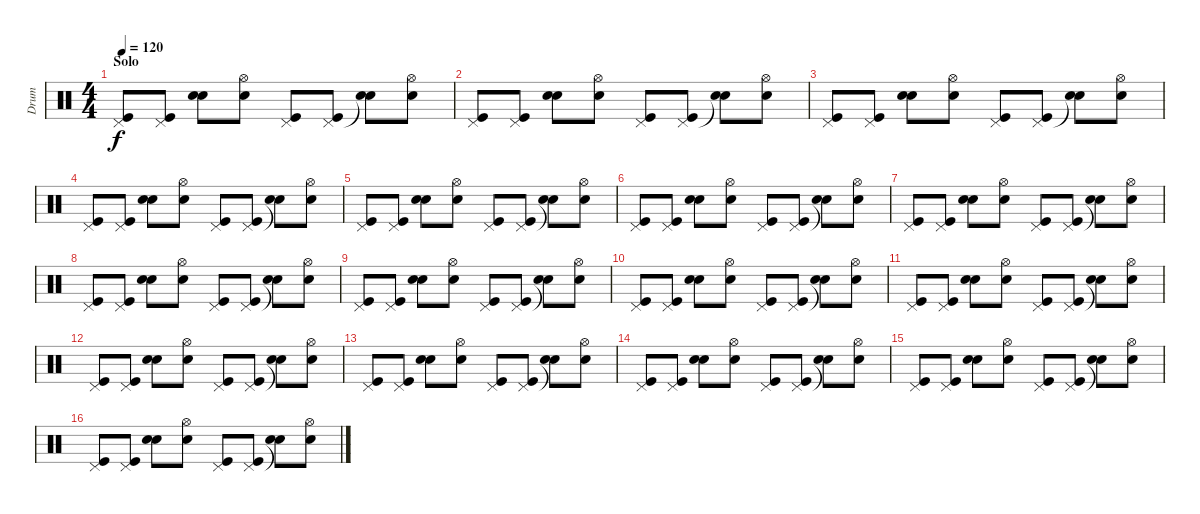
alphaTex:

\track ("Drum" "Drum") {instrument percussion}
\staff {score}
\articulation defaults
\ts (4 4)
\section ("" "Solo")
\tempo 120
\clef neutral
\ks c
("Pedal Hi-Hat (hit)" "Kick (hit)").8{dy f} ("Pedal Hi-Hat (hit)" "Kick (hit)").8 ("Snare (hit) 2" "Snare (hit) 2").8 ("Hi-Hat (open)" "Snare (hit) 2").8 ("Pedal Hi-Hat (hit)" "Kick (hit)").8 ("Pedal Hi-Hat (hit)" "Kick (hit)").8 ("Snare (hit) 2"{t} "Snare (hit) 2").8 ("Hi-Hat (open)" "Snare (hit) 2").8 |
("Pedal Hi-Hat (hit)" "Kick (hit)").8 ("Pedal Hi-Hat (hit)" "Kick (hit)").8 ("Snare (hit) 2" "Snare (hit) 2").8 ("Hi-Hat (open)" "Snare (hit) 2").8 ("Pedal Hi-Hat (hit)" "Kick (hit)").8 ("Pedal Hi-Hat (hit)" "Kick (hit)").8 ("Snare (hit) 2"{t} "Snare (hit) 2").8 ("Hi-Hat (open)" "Snare (hit) 2").8 |
("Pedal Hi-Hat (hit)" "Kick (hit)").8 ("Pedal Hi-Hat (hit)" "Kick (hit)").8 ("Snare (hit) 2" "Snare (hit) 2").8 ("Hi-Hat (open)" "Snare (hit) 2").8 ("Pedal Hi-Hat (hit)" "Kick (hit)").8 ("Pedal Hi-Hat (hit)" "Kick (hit)").8 ("Snare (hit) 2"{t} "Snare (hit) 2").8 ("Hi-Hat (open)" "Snare (hit) 2").8 |
("Pedal Hi-Hat (hit)" "Kick (hit)").8 ("Pedal Hi-Hat (hit)" "Kick (hit)").8 ("Snare (hit) 2" "Snare (hit) 2").8 ("Hi-Hat (open)" "Snare (hit) 2").8 ("Pedal Hi-Hat (hit)" "Kick (hit)").8 ("Pedal Hi-Hat (hit)" "Kick (hit)").8 ("Snare (hit) 2"{t} "Snare (hit) 2").8 ("Hi-Hat (open)" "Snare (hit) 2").8 |
("Pedal Hi-Hat (hit)" "Kick (hit)").8 ("Pedal Hi-Hat (hit)" "Kick (hit)").8 ("Snare (hit) 2" "Snare (hit) 2").8 ("Hi-Hat (open)" "Snare (hit) 2").8 ("Pedal Hi-Hat (hit)" "Kick (hit)").8 ("Pedal Hi-Hat (hit)" "Kick (hit)").8 ("Snare (hit) 2"{t} "Snare (hit) 2").8 ("Hi-Hat (open)" "Snare (hit) 2").8 |
("Pedal Hi-Hat (hit)" "Kick (hit)").8 ("Pedal Hi-Hat (hit)" "Kick (hit)").8 ("Snare (hit) 2" "Snare (hit) 2").8 ("Hi-Hat (open)" "Snare (hit) 2").8 ("Pedal Hi-Hat (hit)" "Kick (hit)").8 ("Pedal Hi-Hat (hit)" "Kick (hit)").8 ("Snare (hit) 2"{t} "Snare (hit) 2").8 ("Hi-Hat (open)" "Snare (hit) 2").8 |
("Pedal Hi-Hat (hit)" "Kick (hit)").8 ("Pedal Hi-Hat (hit)" "Kick (hit)").8 ("Snare (hit) 2" "Snare (hit) 2").8 ("Hi-Hat (open)" "Snare (hit) 2").8 ("Pedal Hi-Hat (hit)" "Kick (hit)").8 ("Pedal Hi-Hat (hit)" "Kick (hit)").8 ("Snare (hit) 2"{t} "Snare (hit) 2").8 ("Hi-Hat (open)" "Snare (hit) 2").8 |
("Pedal Hi-Hat (hit)" "Kick (hit)").8 ("Pedal Hi-Hat (hit)" "Kick (hit)").8 ("Snare (hit) 2" "Snare (hit) 2").8 ("Hi-Hat (open)" "Snare (hit) 2").8 ("Pedal Hi-Hat (hit)" "Kick (hit)").8 ("Pedal Hi-Hat (hit)" "Kick (hit)").8 ("Snare (hit) 2"{t} "Snare (hit) 2").8 ("Hi-Hat (open)" "Snare (hit) 2").8 |
("Pedal Hi-Hat (hit)" "Kick (hit)").8 ("Pedal Hi-Hat (hit)" "Kick (hit)").8 ("Snare (hit) 2" "Snare (hit) 2").8 ("Hi-Hat (open)" "Snare (hit) 2").8 ("Pedal Hi-Hat (hit)" "Kick (hit)").8 ("Pedal Hi-Hat (hit)" "Kick (hit)").8 ("Snare (hit) 2"{t} "Snare (hit) 2").8 ("Hi-Hat (open)" "Snare (hit) 2").8 |
("Pedal Hi-Hat (hit)" "Kick (hit)").8 ("Pedal Hi-Hat (hit)" "Kick (hit)").8 ("Snare (hit) 2" "Snare (hit) 2").8 ("Hi-Hat (open)" "Snare (hit) 2").8 ("Pedal Hi-Hat (hit)" "Kick (hit)").8 ("Pedal Hi-Hat (hit)" "Kick (hit)").8 ("Snare (hit) 2"{t} "Snare (hit) 2").8 ("Hi-Hat (open)" "Snare (hit) 2").8 |
("Pedal Hi-Hat (hit)" "Kick (hit)").8 ("Pedal Hi-Hat (hit)" "Kick (hit)").8 ("Snare (hit) 2" "Snare (hit) 2").8 ("Hi-Hat (open)" "Snare (hit) 2").8 ("Pedal Hi-Hat (hit)" "Kick (hit)").8 ("Pedal Hi-Hat (hit)" "Kick (hit)").8 ("Snare (hit) 2"{t} "Snare (hit) 2").8 ("Hi-Hat (open)" "Snare (hit) 2").8 |
("Pedal Hi-Hat (hit)" "Kick (hit)").8 ("Pedal Hi-Hat (hit)" "Kick (hit)").8 ("Snare (hit) 2" "Snare (hit) 2").8 ("Hi-Hat (open)" "Snare (hit) 2").8 ("Pedal Hi-Hat (hit)" "Kick (hit)").8 ("Pedal Hi-Hat (hit)" "Kick (hit)").8 ("Snare (hit) 2"{t} "Snare (hit) 2").8 ("Hi-Hat (open)" "Snare (hit) 2").8 |
("Pedal Hi-Hat (hit)" "Kick (hit)").8 ("Pedal Hi-Hat (hit)" "Kick (hit)").8 ("Snare (hit) 2" "Snare (hit) 2").8 ("Hi-Hat (open)" "Snare (hit) 2").8 ("Pedal Hi-Hat (hit)" "Kick (hit)").8 ("Pedal Hi-Hat (hit)" "Kick (hit)").8 ("Snare (hit) 2"{t} "Snare (hit) 2").8 ("Hi-Hat (open)" "Snare (hit) 2").8 |
("Pedal Hi-Hat (hit)" "Kick (hit)").8 ("Pedal Hi-Hat (hit)" "Kick (hit)").8 ("Snare (hit) 2" "Snare (hit) 2").8 ("Hi-Hat (open)" "Snare (hit) 2").8 ("Pedal Hi-Hat (hit)" "Kick (hit)").8 ("Pedal Hi-Hat (hit)" "Kick (hit)").8 ("Snare (hit) 2"{t} "Snare (hit) 2").8 ("Hi-Hat (open)" "Snare (hit) 2").8 |
("Pedal Hi-Hat (hit)" "Kick (hit)").8 ("Pedal Hi-Hat (hit)" "Kick (hit)").8 ("Snare (hit) 2" "Snare (hit) 2").8 ("Hi-Hat (open)" "Snare (hit) 2").8 ("Pedal Hi-Hat (hit)" "Kick (hit)").8 ("Pedal Hi-Hat (hit)" "Kick (hit)").8 ("Snare (hit) 2"{t} "Snare (hit) 2").8 ("Hi-Hat (open)" "Snare (hit) 2").8 |
("Pedal Hi-Hat (hit)" "Kick (hit)").8 ("Pedal Hi-Hat (hit)" "Kick (hit)").8 ("Snare (hit) 2" "Snare (hit) 2").8 ("Hi-Hat (open)" "Snare (hit) 2").8 ("Pedal Hi-Hat (hit)" "Kick (hit)").8 ("Pedal Hi-Hat (hit)" "Kick (hit)").8 ("Snare (hit) 2"{t} "Snare (hit) 2").8 ("Hi-Hat (open)" "Snare (hit) 2").8
